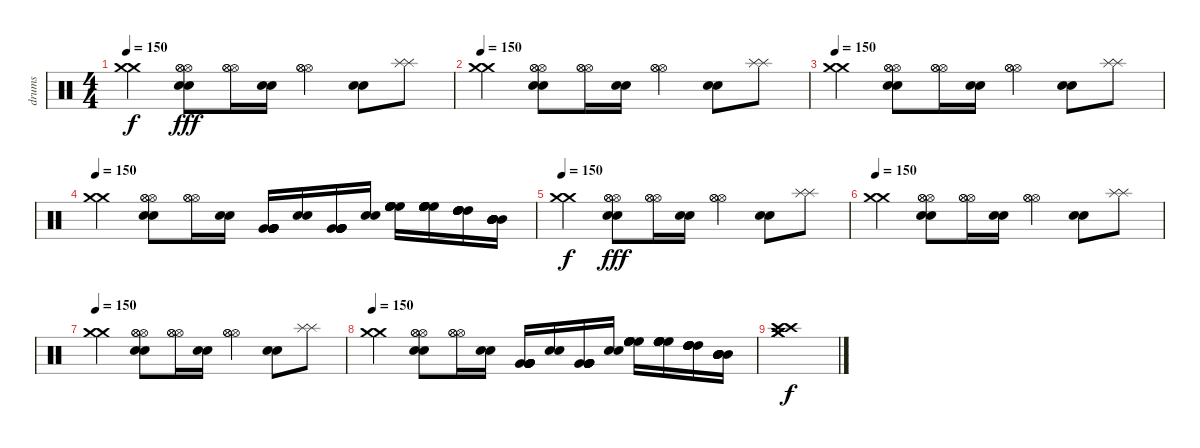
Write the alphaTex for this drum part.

\track ("drums" "drums") {instrument percussion}
\staff {score}
\articulation defaults
\ts (4 4)
\tempo 150
\clef neutral
\ks c
("Crash medium (hit)" "Crash medium (hit)").4{dy f volume 16} ("Snare (hit) 2" "Snare (hit) 2" "Hi-Hat (open)" "Hi-Hat (open)" "Hi-Hat (open)").8{dy fff} ("Hi-Hat (open)" "Hi-Hat (open)" "Hi-Hat (open)").16 ("Snare (hit) 2" "Snare (hit) 2").16 ("Hi-Hat (open)" "Hi-Hat (open)" "Hi-Hat (open)").4 ("Snare (hit) 2" "Snare (hit) 2").8 ("Splash (hit)" "Splash (hit)").8 |
\tempo 150
("Crash medium (hit)" "Crash medium (hit)").4 ("Snare (hit) 2" "Snare (hit) 2" "Hi-Hat (open)" "Hi-Hat (open)" "Hi-Hat (open)").8 ("Hi-Hat (open)" "Hi-Hat (open)" "Hi-Hat (open)").16 ("Snare (hit) 2" "Snare (hit) 2").16 ("Hi-Hat (open)" "Hi-Hat (open)" "Hi-Hat (open)").4 ("Snare (hit) 2" "Snare (hit) 2").8 ("Splash (hit)" "Splash (hit)").8 |
\tempo 150
("Crash medium (hit)" "Crash medium (hit)").4 ("Snare (hit) 2" "Snare (hit) 2" "Hi-Hat (open)" "Hi-Hat (open)" "Hi-Hat (open)").8 ("Hi-Hat (open)" "Hi-Hat (open)" "Hi-Hat (open)").16 ("Snare (hit) 2" "Snare (hit) 2").16 ("Hi-Hat (open)" "Hi-Hat (open)" "Hi-Hat (open)").4 ("Snare (hit) 2" "Snare (hit) 2").8 ("Splash (hit)" "Splash (hit)").8 |
\tempo 150
("Crash medium (hit)" "Crash medium (hit)").4 ("Snare (hit) 2" "Snare (hit) 2" "Hi-Hat (open)" "Hi-Hat (open)" "Hi-Hat (open)").8 ("Hi-Hat (open)" "Hi-Hat (open)" "Hi-Hat (open)").16 ("Snare (hit) 2" "Snare (hit) 2").16 ("Very Low Tom (hit)" "Very Low Tom (hit)" "Very Low Tom (hit)" "Very Low Tom (hit)" "Very Low Tom (hit)" "Very Low Tom (hit)").16 ("Snare (hit) 2" "Snare (hit) 2").16 ("Very Low Tom (hit)" "Very Low Tom (hit)" "Very Low Tom (hit)" "Very Low Tom (hit)" "Very Low Tom (hit)" "Very Low Tom (hit)").16 ("Snare (hit) 2" "Snare (hit) 2").16 ("High Floor Tom (hit)" "High Floor Tom (hit)" "High Floor Tom (hit)" "High Floor Tom (hit)" "High Floor Tom (hit)" "High Floor Tom (hit)").16 ("High Floor Tom (hit)" "High Floor Tom (hit)" "High Floor Tom (hit)" "High Floor Tom (hit)" "High Floor Tom (hit)" "High Floor Tom (hit)").16 ("High Tom (hit)" "High Tom (hit)" "High Tom (hit)" "High Tom (hit)" "High Tom (hit)" "High Tom (hit)").16 ("Mid Tom (hit)" "Mid Tom (hit)" "Mid Tom (hit)" "Mid Tom (hit)" "Mid Tom (hit)" "Mid Tom (hit)").16 |
\tempo 150
("Crash medium (hit)" "Crash medium (hit)").4{dy f volume 16} ("Snare (hit) 2" "Snare (hit) 2" "Hi-Hat (open)" "Hi-Hat (open)" "Hi-Hat (open)").8{dy fff} ("Hi-Hat (open)" "Hi-Hat (open)" "Hi-Hat (open)").16 ("Snare (hit) 2" "Snare (hit) 2").16 ("Hi-Hat (open)" "Hi-Hat (open)" "Hi-Hat (open)").4 ("Snare (hit) 2" "Snare (hit) 2").8 ("Splash (hit)" "Splash (hit)").8 |
\tempo 150
("Crash medium (hit)" "Crash medium (hit)").4 ("Snare (hit) 2" "Snare (hit) 2" "Hi-Hat (open)" "Hi-Hat (open)" "Hi-Hat (open)").8 ("Hi-Hat (open)" "Hi-Hat (open)" "Hi-Hat (open)").16 ("Snare (hit) 2" "Snare (hit) 2").16 ("Hi-Hat (open)" "Hi-Hat (open)" "Hi-Hat (open)").4 ("Snare (hit) 2" "Snare (hit) 2").8 ("Splash (hit)" "Splash (hit)").8 |
\tempo 150
("Crash medium (hit)" "Crash medium (hit)").4 ("Snare (hit) 2" "Snare (hit) 2" "Hi-Hat (open)" "Hi-Hat (open)" "Hi-Hat (open)").8 ("Hi-Hat (open)" "Hi-Hat (open)" "Hi-Hat (open)").16 ("Snare (hit) 2" "Snare (hit) 2").16 ("Hi-Hat (open)" "Hi-Hat (open)" "Hi-Hat (open)").4 ("Snare (hit) 2" "Snare (hit) 2").8 ("Splash (hit)" "Splash (hit)").8 |
\tempo 150
("Crash medium (hit)" "Crash medium (hit)").4 ("Snare (hit) 2" "Snare (hit) 2" "Hi-Hat (open)" "Hi-Hat (open)" "Hi-Hat (open)").8 ("Hi-Hat (open)" "Hi-Hat (open)" "Hi-Hat (open)").16 ("Snare (hit) 2" "Snare (hit) 2").16 ("Very Low Tom (hit)" "Very Low Tom (hit)" "Very Low Tom (hit)" "Very Low Tom (hit)" "Very Low Tom (hit)" "Very Low Tom (hit)").16 ("Snare (hit) 2" "Snare (hit) 2").16 ("Very Low Tom (hit)" "Very Low Tom (hit)" "Very Low Tom (hit)" "Very Low Tom (hit)" "Very Low Tom (hit)" "Very Low Tom (hit)").16 ("Snare (hit) 2" "Snare (hit) 2").16 ("High Floor Tom (hit)" "High Floor Tom (hit)" "High Floor Tom (hit)" "High Floor Tom (hit)" "High Floor Tom (hit)" "High Floor Tom (hit)").16 ("High Floor Tom (hit)" "High Floor Tom (hit)" "High Floor Tom (hit)" "High Floor Tom (hit)" "High Floor Tom (hit)" "High Floor Tom (hit)").16 ("High Tom (hit)" "High Tom (hit)" "High Tom (hit)" "High Tom (hit)" "High Tom (hit)" "High Tom (hit)").16 ("Mid Tom (hit)" "Mid Tom (hit)" "Mid Tom (hit)" "Mid Tom (hit)" "Mid Tom (hit)" "Mid Tom (hit)").16 |
("Crash medium (hit)" "Crash medium (hit)" "Crash high (hit)" "Crash high (hit)").1{dy f}
